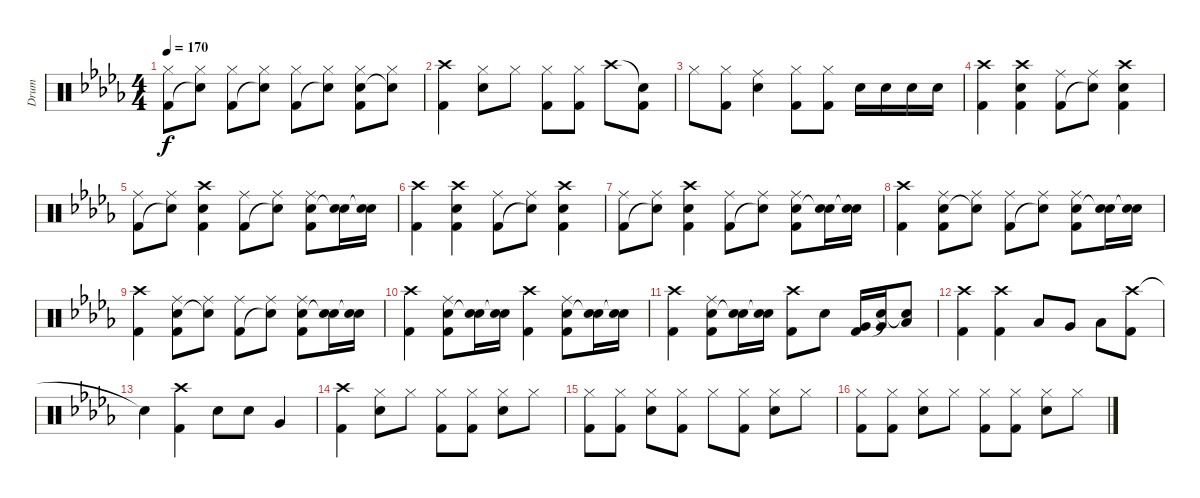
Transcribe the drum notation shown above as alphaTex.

\track ("Drum" "Drum") {instrument percussion}
\staff {score}
\articulation defaults
\ts (4 4)
\tempo 170
\clef neutral
\ks db
("Hi-Hat (closed)" "Kick (hit) 2").8{dy f} ("Hi-Hat (closed)" "Snare (hit)"{t}).8 ("Hi-Hat (closed)" "Kick (hit) 2").8 ("Hi-Hat (closed)" "Snare (hit)"{t}).8 ("Hi-Hat (closed)" "Kick (hit) 2").8 ("Hi-Hat (closed)" "Snare (hit)"{t}).8 ("Hi-Hat (closed)" "Electric Snare (hit)" "Kick (hit) 2").8 ("Hi-Hat (closed)" "Snare (hit)"{t}).8 |
("Crash high (hit)" "Kick (hit) 2").4 ("Hi-Hat (closed)" "Electric Snare (hit)").8 "Hi-Hat (closed)".8 ("Hi-Hat (closed)" "Kick (hit) 2").8 ("Hi-Hat (closed)" "Kick (hit) 2").8 "Crash high (hit)".8 ("Snare (hit)"{t} "Kick (hit) 2").8 |
"Hi-Hat (closed)".8 ("Hi-Hat (closed)" "Kick (hit) 2").8 ("Ride (middle)" "Electric Snare (hit)").4 ("Hi-Hat (closed)" "Kick (hit) 2").8 ("Hi-Hat (closed)" "Kick (hit) 2").8 "Electric Snare (hit)".16 "Electric Snare (hit)".16 "Electric Snare (hit)".16 "Electric Snare (hit)".16 |
("Crash high (hit)" "Kick (hit) 2").4 ("Crash high (hit)" "Electric Snare (hit)" "Kick (hit) 2").4 ("Ride (middle)" "Kick (hit) 2").8 ("Ride (middle)" "Snare (hit)"{t}).8 ("Crash high (hit)" "Electric Snare (hit)" "Kick (hit) 2").4 |
("Ride (middle)" "Kick (hit) 2").8 ("Ride (middle)" "Snare (hit)"{t}).8 ("Crash high (hit)" "Electric Snare (hit)" "Kick (hit) 2").4 ("Ride (middle)" "Kick (hit) 2").8 ("Ride (middle)" "Snare (hit)"{t}).8 ("Ride (middle)" "Electric Snare (hit)" "Kick (hit) 2").8 ("Electric Snare (hit)" "Snare (hit)"{t}).16 ("Electric Snare (hit)" "Snare (hit)"{t}).16 |
("Crash high (hit)" "Kick (hit) 2").4 ("Crash high (hit)" "Electric Snare (hit)" "Kick (hit) 2").4 ("Ride (middle)" "Kick (hit) 2").8 ("Ride (middle)" "Snare (hit)"{t}).8 ("Crash high (hit)" "Electric Snare (hit)" "Kick (hit) 2").4 |
("Ride (middle)" "Kick (hit) 2").8 ("Ride (middle)" "Snare (hit)"{t}).8 ("Crash high (hit)" "Electric Snare (hit)" "Kick (hit) 2").4 ("Ride (middle)" "Kick (hit) 2").8 ("Ride (middle)" "Snare (hit)"{t}).8 ("Ride (middle)" "Electric Snare (hit)" "Kick (hit) 2").8 ("Electric Snare (hit)" "Snare (hit)"{t}).16 ("Electric Snare (hit)" "Snare (hit)"{t}).16 |
("Crash high (hit)" "Kick (hit) 2").4 ("Ride (middle)" "Electric Snare (hit)" "Kick (hit) 2").8 ("Ride (middle)" "Snare (hit)"{t}).8 ("Ride (middle)" "Kick (hit) 2").8 ("Ride (middle)" "Snare (hit)"{t}).8 ("Ride (middle)" "Electric Snare (hit)" "Kick (hit) 2").8 ("Electric Snare (hit)" "Snare (hit)"{t}).16 ("Electric Snare (hit)" "Snare (hit)"{t}).16 |
("Crash high (hit)" "Kick (hit) 2").4 ("Ride (middle)" "Electric Snare (hit)" "Kick (hit) 2").8 ("Ride (middle)" "Snare (hit)"{t}).8 ("Ride (middle)" "Kick (hit) 2").8 ("Ride (middle)" "Snare (hit)"{t}).8 ("Ride (middle)" "Electric Snare (hit)" "Kick (hit) 2").8 ("Electric Snare (hit)" "Snare (hit)"{t}).16 ("Electric Snare (hit)" "Snare (hit)"{t}).16 |
("Crash high (hit)" "Kick (hit) 2").4 ("Ride (middle)" "Electric Snare (hit)" "Kick (hit) 2").8 ("Electric Snare (hit)" "Snare (hit)"{t}).16 ("Electric Snare (hit)" "Snare (hit)"{t}).16 ("Crash high (hit)" "Kick (hit) 2").4 ("Ride (middle)" "Electric Snare (hit)" "Kick (hit) 2").8 ("Electric Snare (hit)" "Snare (hit)"{t}).16 ("Electric Snare (hit)" "Snare (hit)"{t}).16 |
("Crash high (hit)" "Kick (hit) 2").4 ("Ride (middle)" "Electric Snare (hit)" "Kick (hit) 2").8 ("Electric Snare (hit)" "Snare (hit)"{t}).16 ("Electric Snare (hit)" "Snare (hit)"{t}).16 ("Crash high (hit)" "Kick (hit) 2").8 "Electric Snare (hit)".8 ("Very Low Tom (hit)" "Kick (hit) 2").16 ("Very Low Tom (hit)" "Snare (hit)"{t}).16 ("Low Floor Tom (hit)" "Snare (hit)"{t}).8 |
("Crash high (hit)" "Kick (hit) 2").4 ("Crash high (hit)" "Kick (hit) 2").4 "Low Tom (hit)".8 "Very Low Tom (hit)".8 "Low Floor Tom (hit)".8 ("Crash high (hit)" "Kick (hit) 2").8 |
"Snare (hit)"{t}.4 ("Crash high (hit)" "Kick (hit) 2").4 "Electric Snare (hit)".8 "Electric Snare (hit)".8 "Very Low Tom (hit)".4 |
("Crash high (hit)" "Kick (hit) 2").4 ("Hi-Hat (closed)" "Electric Snare (hit)").8 "Hi-Hat (closed)".8 ("Hi-Hat (closed)" "Kick (hit) 2").8 ("Hi-Hat (closed)" "Kick (hit) 2").8 ("Hi-Hat (closed)" "Electric Snare (hit)").8 "Hi-Hat (closed)".8 |
("Hi-Hat (closed)" "Kick (hit) 2").8 ("Hi-Hat (closed)" "Kick (hit) 2").8 ("Hi-Hat (closed)" "Electric Snare (hit)").8 ("Hi-Hat (closed)" "Kick (hit) 2").8 "Hi-Hat (closed)".8 ("Hi-Hat (closed)" "Kick (hit) 2").8 ("Hi-Hat (closed)" "Electric Snare (hit)").8 "Hi-Hat (closed)".8 |
("Hi-Hat (closed)" "Kick (hit) 2").8 ("Hi-Hat (closed)" "Kick (hit) 2").8 ("Hi-Hat (closed)" "Electric Snare (hit)").8 "Hi-Hat (closed)".8 ("Hi-Hat (closed)" "Kick (hit) 2").8 ("Hi-Hat (closed)" "Kick (hit) 2").8 ("Hi-Hat (closed)" "Electric Snare (hit)").8 "Hi-Hat (closed)".8
